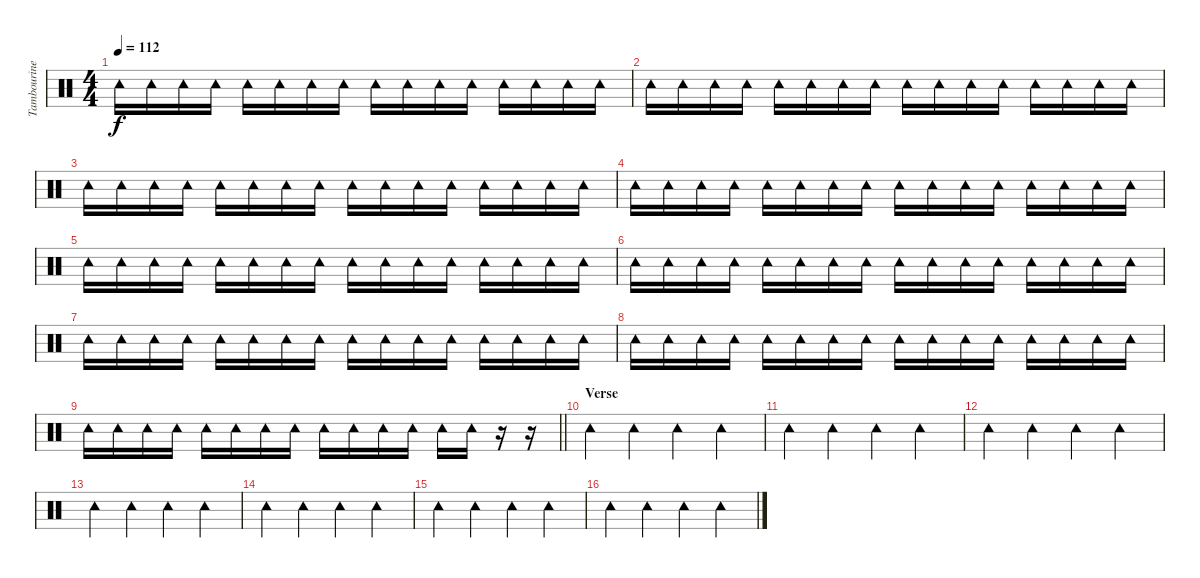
\track ("Tambourine" "Tambourine") {instrument percussion}
\staff {score}
\articulation defaults
\ts (4 4)
\tempo 112
\clef neutral
\ks c "Tambourine (hit)".16{dy f} "Tambourine (hit)".16 "Tambourine (hit)".16 "Tambourine (hit)".16 "Tambourine (hit)".16 "Tambourine (hit)".16 "Tambourine (hit)".16 "Tambourine (hit)".16 "Tambourine (hit)".16 "Tambourine (hit)".16 "Tambourine (hit)".16 "Tambourine (hit)".16 "Tambourine (hit)".16 "Tambourine (hit)".16 "Tambourine (hit)".16 "Tambourine (hit)".16
|
"Tambourine (hit)".16 "Tambourine (hit)".16 "Tambourine (hit)".16 "Tambourine (hit)".16 "Tambourine (hit)".16 "Tambourine (hit)".16 "Tambourine (hit)".16 "Tambourine (hit)".16 "Tambourine (hit)".16 "Tambourine (hit)".16 "Tambourine (hit)".16 "Tambourine (hit)".16 "Tambourine (hit)".16 "Tambourine (hit)".16 "Tambourine (hit)".16 "Tambourine (hit)".16 |
"Tambourine (hit)".16 "Tambourine (hit)".16 "Tambourine (hit)".16 "Tambourine (hit)".16 "Tambourine (hit)".16 "Tambourine (hit)".16 "Tambourine (hit)".16 "Tambourine (hit)".16 "Tambourine (hit)".16 "Tambourine (hit)".16 "Tambourine (hit)".16 "Tambourine (hit)".16 "Tambourine (hit)".16 "Tambourine (hit)".16 "Tambourine (hit)".16 "Tambourine (hit)".16 |
"Tambourine (hit)".16 "Tambourine (hit)".16 "Tambourine (hit)".16 "Tambourine (hit)".16 "Tambourine (hit)".16 "Tambourine (hit)".16 "Tambourine (hit)".16 "Tambourine (hit)".16 "Tambourine (hit)".16 "Tambourine (hit)".16 "Tambourine (hit)".16 "Tambourine (hit)".16 "Tambourine (hit)".16 "Tambourine (hit)".16 "Tambourine (hit)".16 "Tambourine (hit)".16 |
"Tambourine (hit)".16 "Tambourine (hit)".16 "Tambourine (hit)".16 "Tambourine (hit)".16 "Tambourine (hit)".16 "Tambourine (hit)".16 "Tambourine (hit)".16 "Tambourine (hit)".16 "Tambourine (hit)".16 "Tambourine (hit)".16 "Tambourine (hit)".16 "Tambourine (hit)".16 "Tambourine (hit)".16 "Tambourine (hit)".16 "Tambourine (hit)".16 "Tambourine (hit)".16 |
"Tambourine (hit)".16 "Tambourine (hit)".16 "Tambourine (hit)".16 "Tambourine (hit)".16 "Tambourine (hit)".16 "Tambourine (hit)".16 "Tambourine (hit)".16 "Tambourine (hit)".16 "Tambourine (hit)".16 "Tambourine (hit)".16 "Tambourine (hit)".16 "Tambourine (hit)".16 "Tambourine (hit)".16 "Tambourine (hit)".16 "Tambourine (hit)".16 "Tambourine (hit)".16 |
"Tambourine (hit)".16 "Tambourine (hit)".16 "Tambourine (hit)".16 "Tambourine (hit)".16 "Tambourine (hit)".16 "Tambourine (hit)".16 "Tambourine (hit)".16 "Tambourine (hit)".16 "Tambourine (hit)".16 "Tambourine (hit)".16 "Tambourine (hit)".16 "Tambourine (hit)".16 "Tambourine (hit)".16 "Tambourine (hit)".16 "Tambourine (hit)".16 "Tambourine (hit)".16 |
"Tambourine (hit)".16 "Tambourine (hit)".16 "Tambourine (hit)".16 "Tambourine (hit)".16 "Tambourine (hit)".16 "Tambourine (hit)".16 "Tambourine (hit)".16 "Tambourine (hit)".16 "Tambourine (hit)".16 "Tambourine (hit)".16 "Tambourine (hit)".16 "Tambourine (hit)".16 "Tambourine (hit)".16 "Tambourine (hit)".16 "Tambourine (hit)".16 "Tambourine (hit)".16 |
\barLineRight lightlight "Tambourine (hit)".16 "Tambourine (hit)".16 "Tambourine (hit)".16 "Tambourine (hit)".16 "Tambourine (hit)".16 "Tambourine (hit)".16 "Tambourine (hit)".16 "Tambourine (hit)".16 "Tambourine (hit)".16 "Tambourine (hit)".16 "Tambourine (hit)".16 "Tambourine (hit)".16 "Tambourine (hit)".16 "Tambourine (hit)".16
r.16 r.16 |
\section ("" "Verse")
"Tambourine (hit)".4 "Tambourine (hit)".4 "Tambourine (hit)".4 "Tambourine (hit)".4 |
"Tambourine (hit)".4 "Tambourine (hit)".4 "Tambourine (hit)".4 "Tambourine (hit)".4 |
"Tambourine (hit)".4 "Tambourine (hit)".4 "Tambourine (hit)".4 "Tambourine (hit)".4 |
"Tambourine (hit)".4 "Tambourine (hit)".4 "Tambourine (hit)".4 "Tambourine (hit)".4 |
"Tambourine (hit)".4 "Tambourine (hit)".4 "Tambourine (hit)".4 "Tambourine (hit)".4 |
"Tambourine (hit)".4 "Tambourine (hit)".4 "Tambourine (hit)".4 "Tambourine (hit)".4 |
"Tambourine (hit)".4 "Tambourine (hit)".4 "Tambourine (hit)".4 "Tambourine (hit)".4
